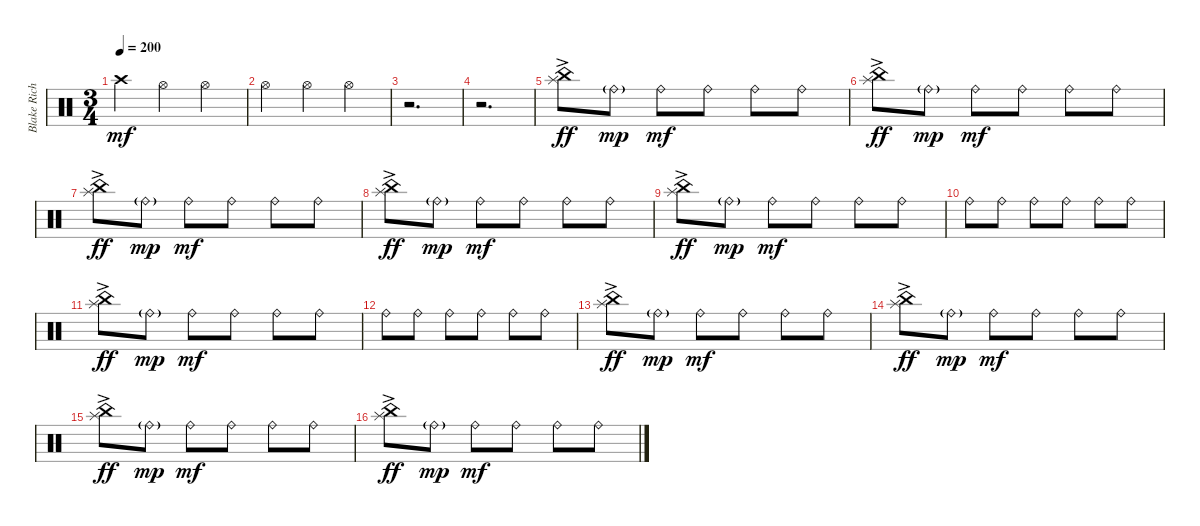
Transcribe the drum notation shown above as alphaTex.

\track ("Blake Richardson Drums" "Blake Rich") {instrument percussion}
\staff {score}
\articulation defaults
\ts (3 4)
\tempo 200
\clef neutral
\ks c "Crash high (hit)".4{dy mf} "Hi-Hat (open)".4 "Hi-Hat (open)".4
|
"Hi-Hat (open)".4 "Hi-Hat (open)".4 "Hi-Hat (open)".4 |
r.2{d} |
r.2{d} |
("China (hit)" "Splash (hit)"{ac}).8{dy ff} "Ride (bell)"{g}.8{dy mp} "Ride (bell)".8{dy mf} "Ride (bell)".8 "Ride (bell)".8 "Ride (bell)".8 |
("China (hit)" "Splash (hit)"{ac}).8{dy ff} "Ride (bell)"{g}.8{dy mp} "Ride (bell)".8{dy mf} "Ride (bell)".8 "Ride (bell)".8 "Ride (bell)".8 |
("China (hit)" "Splash (hit)"{ac}).8{dy ff} "Ride (bell)"{g}.8{dy mp} "Ride (bell)".8{dy mf} "Ride (bell)".8 "Ride (bell)".8 "Ride (bell)".8 |
("China (hit)" "Splash (hit)"{ac}).8{dy ff} "Ride (bell)"{g}.8{dy mp} "Ride (bell)".8{dy mf} "Ride (bell)".8 "Ride (bell)".8 "Ride (bell)".8 |
("China (hit)" "Splash (hit)"{ac}).8{dy ff} "Ride (bell)"{g}.8{dy mp} "Ride (bell)".8{dy mf} "Ride (bell)".8 "Ride (bell)".8 "Ride (bell)".8 |
"Ride (bell)".8 "Ride (bell)".8 "Ride (bell)".8 "Ride (bell)".8 "Ride (bell)".8 "Ride (bell)".8 |
("China (hit)" "Splash (hit)"{ac}).8{dy ff} "Ride (bell)"{g}.8{dy mp} "Ride (bell)".8{dy mf} "Ride (bell)".8 "Ride (bell)".8 "Ride (bell)".8 |
"Ride (bell)".8 "Ride (bell)".8 "Ride (bell)".8 "Ride (bell)".8 "Ride (bell)".8 "Ride (bell)".8 |
("China (hit)" "Splash (hit)"{ac}).8{dy ff} "Ride (bell)"{g}.8{dy mp} "Ride (bell)".8{dy mf} "Ride (bell)".8 "Ride (bell)".8 "Ride (bell)".8 |
("China (hit)" "Splash (hit)"{ac}).8{dy ff} "Ride (bell)"{g}.8{dy mp} "Ride (bell)".8{dy mf} "Ride (bell)".8 "Ride (bell)".8 "Ride (bell)".8 |
("China (hit)" "Splash (hit)"{ac}).8{dy ff} "Ride (bell)"{g}.8{dy mp} "Ride (bell)".8{dy mf} "Ride (bell)".8 "Ride (bell)".8 "Ride (bell)".8 |
("China (hit)" "Splash (hit)"{ac}).8{dy ff} "Ride (bell)"{g}.8{dy mp} "Ride (bell)".8{dy mf} "Ride (bell)".8 "Ride (bell)".8 "Ride (bell)".8
